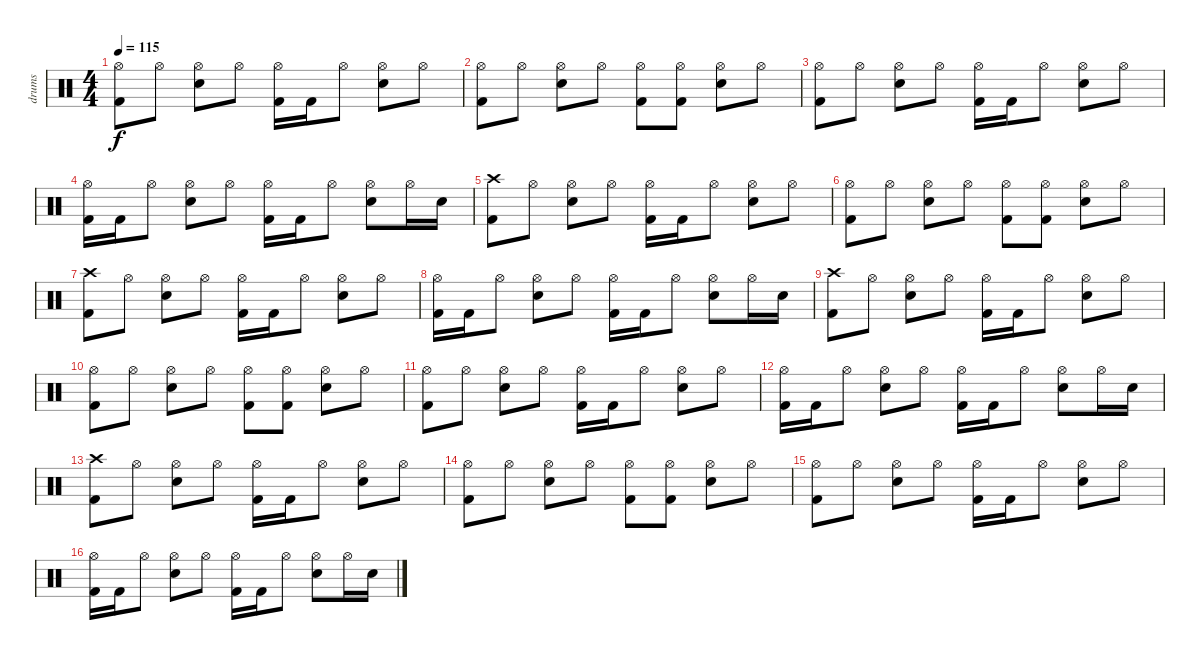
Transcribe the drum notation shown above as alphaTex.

\track ("drums" "drums") {instrument percussion}
\staff {score}
\articulation defaults
\ts (4 4)
\tempo 115
\clef neutral
\ks c
("Hi-Hat (open)" "Kick (hit) 2").8{dy f} "Hi-Hat (open)".8 ("Hi-Hat (open)" "Electric Snare (hit)").8 "Hi-Hat (open)".8 ("Hi-Hat (open)" "Kick (hit) 2").16 "Kick (hit) 2".16 "Hi-Hat (open)".8 ("Hi-Hat (open)" "Electric Snare (hit)").8 "Hi-Hat (open)".8 |
("Hi-Hat (open)" "Kick (hit) 2").8 "Hi-Hat (open)".8 ("Hi-Hat (open)" "Electric Snare (hit)").8 "Hi-Hat (open)".8 ("Hi-Hat (open)" "Kick (hit) 2").8 ("Hi-Hat (open)" "Kick (hit) 2").8 ("Hi-Hat (open)" "Electric Snare (hit)").8 "Hi-Hat (open)".8 |
("Hi-Hat (open)" "Kick (hit) 2").8 "Hi-Hat (open)".8 ("Hi-Hat (open)" "Electric Snare (hit)").8 "Hi-Hat (open)".8 ("Hi-Hat (open)" "Kick (hit) 2").16 "Kick (hit) 2".16 "Hi-Hat (open)".8 ("Hi-Hat (open)" "Electric Snare (hit)").8 "Hi-Hat (open)".8 |
("Hi-Hat (open)" "Kick (hit) 2").16 "Kick (hit) 2".16 "Hi-Hat (open)".8 ("Hi-Hat (open)" "Electric Snare (hit)").8 "Hi-Hat (open)".8 ("Hi-Hat (open)" "Kick (hit) 2").16 "Kick (hit) 2".16 "Hi-Hat (open)".8 ("Hi-Hat (open)" "Electric Snare (hit)").8 "Hi-Hat (open)".16 "Electric Snare (hit)".16 |
("Crash high (hit)" "Kick (hit) 2").8 "Hi-Hat (open)".8 ("Hi-Hat (open)" "Electric Snare (hit)").8 "Hi-Hat (open)".8 ("Hi-Hat (open)" "Kick (hit) 2").16 "Kick (hit) 2".16 "Hi-Hat (open)".8 ("Hi-Hat (open)" "Electric Snare (hit)").8 "Hi-Hat (open)".8 |
("Hi-Hat (open)" "Kick (hit) 2").8 "Hi-Hat (open)".8 ("Hi-Hat (open)" "Electric Snare (hit)").8 "Hi-Hat (open)".8 ("Hi-Hat (open)" "Kick (hit) 2").8 ("Hi-Hat (open)" "Kick (hit) 2").8 ("Hi-Hat (open)" "Electric Snare (hit)").8 "Hi-Hat (open)".8 |
("Crash high (hit)" "Kick (hit) 2").8 "Hi-Hat (open)".8 ("Hi-Hat (open)" "Electric Snare (hit)").8 "Hi-Hat (open)".8 ("Hi-Hat (open)" "Kick (hit) 2").16 "Kick (hit) 2".16 "Hi-Hat (open)".8 ("Hi-Hat (open)" "Electric Snare (hit)").8 "Hi-Hat (open)".8 |
("Hi-Hat (open)" "Kick (hit) 2").16 "Kick (hit) 2".16 "Hi-Hat (open)".8 ("Hi-Hat (open)" "Electric Snare (hit)").8 "Hi-Hat (open)".8 ("Hi-Hat (open)" "Kick (hit) 2").16 "Kick (hit) 2".16 "Hi-Hat (open)".8 ("Hi-Hat (open)" "Electric Snare (hit)").8 "Hi-Hat (open)".16 "Electric Snare (hit)".16 |
("Crash high (hit)" "Kick (hit) 2").8 "Hi-Hat (open)".8 ("Hi-Hat (open)" "Electric Snare (hit)").8 "Hi-Hat (open)".8 ("Hi-Hat (open)" "Kick (hit) 2").16 "Kick (hit) 2".16 "Hi-Hat (open)".8 ("Hi-Hat (open)" "Electric Snare (hit)").8 "Hi-Hat (open)".8 |
("Hi-Hat (open)" "Kick (hit) 2").8 "Hi-Hat (open)".8 ("Hi-Hat (open)" "Electric Snare (hit)").8 "Hi-Hat (open)".8 ("Hi-Hat (open)" "Kick (hit) 2").8 ("Hi-Hat (open)" "Kick (hit) 2").8 ("Hi-Hat (open)" "Electric Snare (hit)").8 "Hi-Hat (open)".8 |
("Hi-Hat (open)" "Kick (hit) 2").8 "Hi-Hat (open)".8 ("Hi-Hat (open)" "Electric Snare (hit)").8 "Hi-Hat (open)".8 ("Hi-Hat (open)" "Kick (hit) 2").16 "Kick (hit) 2".16 "Hi-Hat (open)".8 ("Hi-Hat (open)" "Electric Snare (hit)").8 "Hi-Hat (open)".8 |
("Hi-Hat (open)" "Kick (hit) 2").16 "Kick (hit) 2".16 "Hi-Hat (open)".8 ("Hi-Hat (open)" "Electric Snare (hit)").8 "Hi-Hat (open)".8 ("Hi-Hat (open)" "Kick (hit) 2").16 "Kick (hit) 2".16 "Hi-Hat (open)".8 ("Hi-Hat (open)" "Electric Snare (hit)").8 "Hi-Hat (open)".16 "Electric Snare (hit)".16 |
("Crash high (hit)" "Kick (hit) 2").8 "Hi-Hat (open)".8 ("Hi-Hat (open)" "Electric Snare (hit)").8 "Hi-Hat (open)".8 ("Hi-Hat (open)" "Kick (hit) 2").16 "Kick (hit) 2".16 "Hi-Hat (open)".8 ("Hi-Hat (open)" "Electric Snare (hit)").8 "Hi-Hat (open)".8 |
("Hi-Hat (open)" "Kick (hit) 2").8 "Hi-Hat (open)".8 ("Hi-Hat (open)" "Electric Snare (hit)").8 "Hi-Hat (open)".8 ("Hi-Hat (open)" "Kick (hit) 2").8 ("Hi-Hat (open)" "Kick (hit) 2").8 ("Hi-Hat (open)" "Electric Snare (hit)").8 "Hi-Hat (open)".8 |
("Hi-Hat (open)" "Kick (hit) 2").8 "Hi-Hat (open)".8 ("Hi-Hat (open)" "Electric Snare (hit)").8 "Hi-Hat (open)".8 ("Hi-Hat (open)" "Kick (hit) 2").16 "Kick (hit) 2".16 "Hi-Hat (open)".8 ("Hi-Hat (open)" "Electric Snare (hit)").8 "Hi-Hat (open)".8 |
("Hi-Hat (open)" "Kick (hit) 2").16 "Kick (hit) 2".16 "Hi-Hat (open)".8 ("Hi-Hat (open)" "Electric Snare (hit)").8 "Hi-Hat (open)".8 ("Hi-Hat (open)" "Kick (hit) 2").16 "Kick (hit) 2".16 "Hi-Hat (open)".8 ("Hi-Hat (open)" "Electric Snare (hit)").8 "Hi-Hat (open)".16 "Electric Snare (hit)".16
